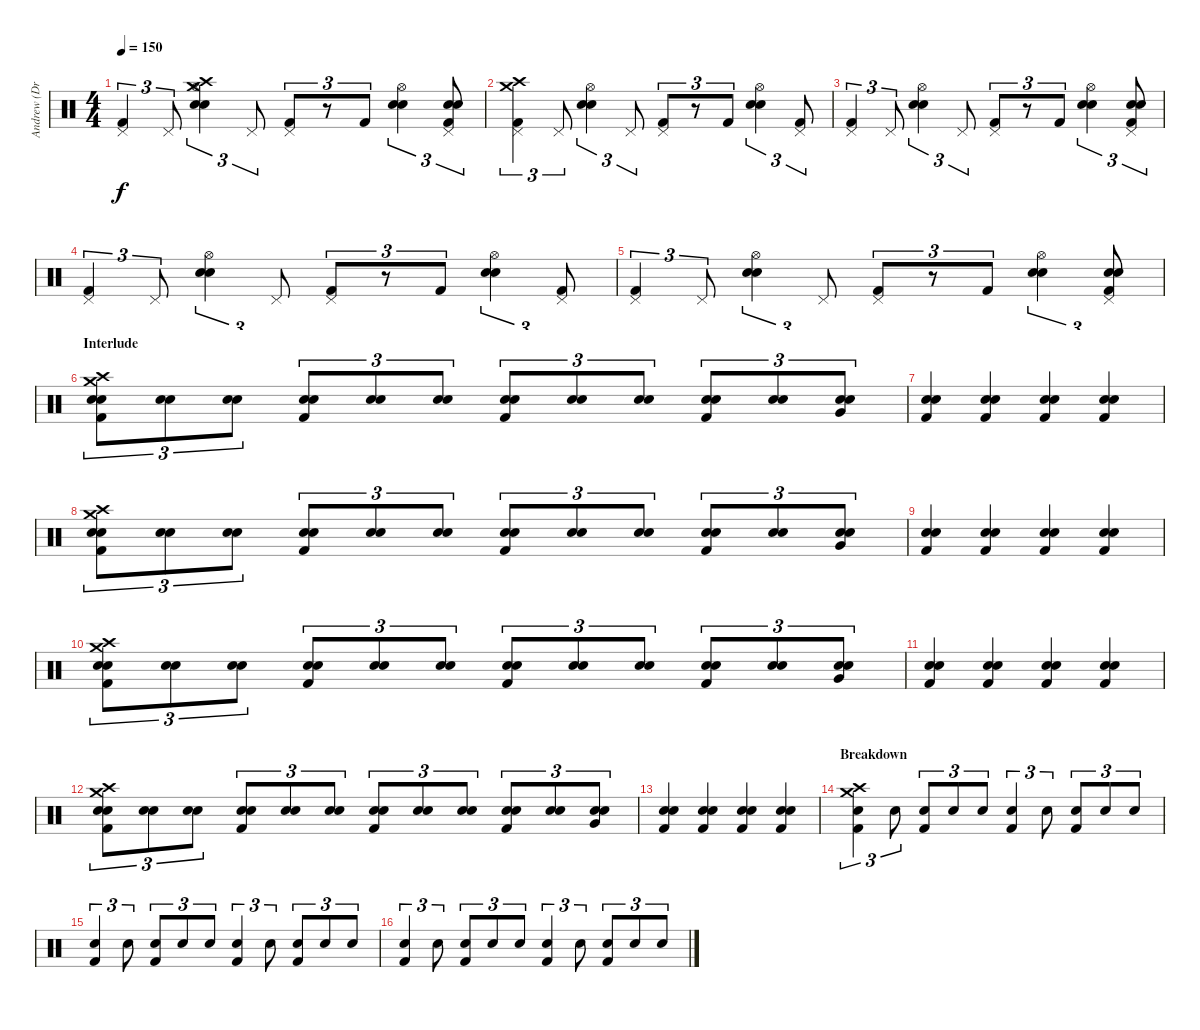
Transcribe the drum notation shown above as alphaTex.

\track ("Andrew (Drums)" "Andrew (Dr") {instrument percussion}
\staff {score}
\articulation defaults
\ts (4 4)
\tempo 150
\clef neutral
\ks c
("Kick (hit) 2" "Pedal Hi-Hat (hit)").4{tu (3 2) dy f} "Pedal Hi-Hat (hit)".8{tu (3 2)} ("Electric Snare (hit)" "Snare (hit) 2" "Hi-Hat (open)" "Crash medium (hit)" "Crash high (hit)").4{tu (3 2)} "Pedal Hi-Hat (hit)".8{tu (3 2)} ("Kick (hit) 2" "Pedal Hi-Hat (hit)").8{tu (3 2)} r.8{tu (3 2)} "Kick (hit) 2".8{tu (3 2)} ("Electric Snare (hit)" "Snare (hit) 2" "Hi-Hat (open)").4{tu (3 2)} ("Kick (hit) 2" "Electric Snare (hit)" "Pedal Hi-Hat (hit)" "Snare (hit) 2").8{tu (3 2)} |
("Kick (hit) 2" "Pedal Hi-Hat (hit)" "Crash medium (hit)" "Crash high (hit)").4{tu (3 2)} "Pedal Hi-Hat (hit)".8{tu (3 2)} ("Electric Snare (hit)" "Snare (hit) 2" "Hi-Hat (open)").4{tu (3 2)} "Pedal Hi-Hat (hit)".8{tu (3 2)} ("Kick (hit) 2" "Pedal Hi-Hat (hit)").8{tu (3 2)} r.8{tu (3 2)} "Kick (hit) 2".8{tu (3 2)} ("Electric Snare (hit)" "Snare (hit) 2" "Hi-Hat (open)").4{tu (3 2)} ("Kick (hit) 2" "Pedal Hi-Hat (hit)").8{tu (3 2)} |
("Kick (hit) 2" "Pedal Hi-Hat (hit)").4{tu (3 2)} "Pedal Hi-Hat (hit)".8{tu (3 2)} ("Electric Snare (hit)" "Snare (hit) 2" "Hi-Hat (open)").4{tu (3 2)} "Pedal Hi-Hat (hit)".8{tu (3 2)} ("Kick (hit) 2" "Pedal Hi-Hat (hit)").8{tu (3 2)} r.8{tu (3 2)} "Kick (hit) 2".8{tu (3 2)} ("Electric Snare (hit)" "Snare (hit) 2" "Hi-Hat (open)").4{tu (3 2)} ("Kick (hit) 2" "Electric Snare (hit)" "Pedal Hi-Hat (hit)" "Snare (hit) 2").8{tu (3 2)} |
("Kick (hit) 2" "Pedal Hi-Hat (hit)").4{tu (3 2)} "Pedal Hi-Hat (hit)".8{tu (3 2)} ("Electric Snare (hit)" "Snare (hit) 2" "Hi-Hat (open)").4{tu (3 2)} "Pedal Hi-Hat (hit)".8{tu (3 2)} ("Kick (hit) 2" "Pedal Hi-Hat (hit)").8{tu (3 2)} r.8{tu (3 2)} "Kick (hit) 2".8{tu (3 2)} ("Electric Snare (hit)" "Snare (hit) 2" "Hi-Hat (open)").4{tu (3 2)} ("Kick (hit) 2" "Pedal Hi-Hat (hit)").8{tu (3 2)} |
("Kick (hit) 2" "Pedal Hi-Hat (hit)").4{tu (3 2)} "Pedal Hi-Hat (hit)".8{tu (3 2)} ("Electric Snare (hit)" "Snare (hit) 2" "Hi-Hat (open)").4{tu (3 2)} "Pedal Hi-Hat (hit)".8{tu (3 2)} ("Kick (hit) 2" "Pedal Hi-Hat (hit)").8{tu (3 2)} r.8{tu (3 2)} "Kick (hit) 2".8{tu (3 2)} ("Electric Snare (hit)" "Snare (hit) 2" "Hi-Hat (open)").4{tu (3 2)} ("Kick (hit) 2" "Electric Snare (hit)" "Pedal Hi-Hat (hit)" "Snare (hit) 2").8{tu (3 2)} |
\section ("" "Interlude")
("Electric Snare (hit)" "Snare (hit) 2" "Kick (hit) 2" "Crash medium (hit)" "Crash high (hit)").8{tu (3 2)} ("Electric Snare (hit)" "Snare (hit) 2").8{tu (3 2)} ("Electric Snare (hit)" "Snare (hit) 2").8{tu (3 2)} ("Electric Snare (hit)" "Snare (hit) 2" "Kick (hit) 2").8{tu (3 2)} ("Electric Snare (hit)" "Snare (hit) 2").8{tu (3 2)} ("Electric Snare (hit)" "Snare (hit) 2").8{tu (3 2)} ("Electric Snare (hit)" "Snare (hit) 2" "Kick (hit) 2").8{tu (3 2)} ("Electric Snare (hit)" "Snare (hit) 2").8{tu (3 2)} ("Electric Snare (hit)" "Snare (hit) 2").8{tu (3 2)} ("Electric Snare (hit)" "Snare (hit) 2" "Kick (hit) 2").8{tu (3 2)} ("Electric Snare (hit)" "Snare (hit) 2").8{tu (3 2)} ("Electric Snare (hit)" "Snare (hit) 2" "Very Low Tom (hit)").8{tu (3 2)} |
("Electric Snare (hit)" "Snare (hit) 2" "Kick (hit) 2").4 ("Electric Snare (hit)" "Snare (hit) 2" "Kick (hit) 2").4 ("Electric Snare (hit)" "Snare (hit) 2" "Kick (hit) 2").4 ("Electric Snare (hit)" "Snare (hit) 2" "Kick (hit) 2").4 |
("Electric Snare (hit)" "Snare (hit) 2" "Kick (hit) 2" "Crash medium (hit)" "Crash high (hit)").8{tu (3 2)} ("Electric Snare (hit)" "Snare (hit) 2").8{tu (3 2)} ("Electric Snare (hit)" "Snare (hit) 2").8{tu (3 2)} ("Electric Snare (hit)" "Snare (hit) 2" "Kick (hit) 2").8{tu (3 2)} ("Electric Snare (hit)" "Snare (hit) 2").8{tu (3 2)} ("Electric Snare (hit)" "Snare (hit) 2").8{tu (3 2)} ("Electric Snare (hit)" "Snare (hit) 2" "Kick (hit) 2").8{tu (3 2)} ("Electric Snare (hit)" "Snare (hit) 2").8{tu (3 2)} ("Electric Snare (hit)" "Snare (hit) 2").8{tu (3 2)} ("Electric Snare (hit)" "Snare (hit) 2" "Kick (hit) 2").8{tu (3 2)} ("Electric Snare (hit)" "Snare (hit) 2").8{tu (3 2)} ("Electric Snare (hit)" "Snare (hit) 2" "Very Low Tom (hit)").8{tu (3 2)} |
("Electric Snare (hit)" "Snare (hit) 2" "Kick (hit) 2").4 ("Electric Snare (hit)" "Snare (hit) 2" "Kick (hit) 2").4 ("Electric Snare (hit)" "Snare (hit) 2" "Kick (hit) 2").4 ("Electric Snare (hit)" "Snare (hit) 2" "Kick (hit) 2").4 |
("Electric Snare (hit)" "Snare (hit) 2" "Kick (hit) 2" "Crash medium (hit)" "Crash high (hit)").8{tu (3 2)} ("Electric Snare (hit)" "Snare (hit) 2").8{tu (3 2)} ("Electric Snare (hit)" "Snare (hit) 2").8{tu (3 2)} ("Electric Snare (hit)" "Snare (hit) 2" "Kick (hit) 2").8{tu (3 2)} ("Electric Snare (hit)" "Snare (hit) 2").8{tu (3 2)} ("Electric Snare (hit)" "Snare (hit) 2").8{tu (3 2)} ("Electric Snare (hit)" "Snare (hit) 2" "Kick (hit) 2").8{tu (3 2)} ("Electric Snare (hit)" "Snare (hit) 2").8{tu (3 2)} ("Electric Snare (hit)" "Snare (hit) 2").8{tu (3 2)} ("Electric Snare (hit)" "Snare (hit) 2" "Kick (hit) 2").8{tu (3 2)} ("Electric Snare (hit)" "Snare (hit) 2").8{tu (3 2)} ("Electric Snare (hit)" "Snare (hit) 2" "Very Low Tom (hit)").8{tu (3 2)} |
("Electric Snare (hit)" "Snare (hit) 2" "Kick (hit) 2").4 ("Electric Snare (hit)" "Snare (hit) 2" "Kick (hit) 2").4 ("Electric Snare (hit)" "Snare (hit) 2" "Kick (hit) 2").4 ("Electric Snare (hit)" "Snare (hit) 2" "Kick (hit) 2").4 |
("Electric Snare (hit)" "Snare (hit) 2" "Kick (hit) 2" "Crash medium (hit)" "Crash high (hit)").8{tu (3 2)} ("Electric Snare (hit)" "Snare (hit) 2").8{tu (3 2)} ("Electric Snare (hit)" "Snare (hit) 2").8{tu (3 2)} ("Electric Snare (hit)" "Snare (hit) 2" "Kick (hit) 2").8{tu (3 2)} ("Electric Snare (hit)" "Snare (hit) 2").8{tu (3 2)} ("Electric Snare (hit)" "Snare (hit) 2").8{tu (3 2)} ("Electric Snare (hit)" "Snare (hit) 2" "Kick (hit) 2").8{tu (3 2)} ("Electric Snare (hit)" "Snare (hit) 2").8{tu (3 2)} ("Electric Snare (hit)" "Snare (hit) 2").8{tu (3 2)} ("Electric Snare (hit)" "Snare (hit) 2" "Kick (hit) 2").8{tu (3 2)} ("Electric Snare (hit)" "Snare (hit) 2").8{tu (3 2)} ("Electric Snare (hit)" "Snare (hit) 2" "Very Low Tom (hit)").8{tu (3 2)} |
("Electric Snare (hit)" "Snare (hit) 2" "Kick (hit) 2").4 ("Electric Snare (hit)" "Snare (hit) 2" "Kick (hit) 2").4 ("Electric Snare (hit)" "Snare (hit) 2" "Kick (hit) 2").4 ("Electric Snare (hit)" "Snare (hit) 2" "Kick (hit) 2").4 |
\section ("" "Breakdown")
("Electric Snare (hit)" "Kick (hit) 2" "Crash medium (hit)" "Crash high (hit)").4{tu (3 2) volume 10} "Electric Snare (hit)".8{tu (3 2)} ("Electric Snare (hit)" "Kick (hit) 2").8{tu (3 2)} "Electric Snare (hit)".8{tu (3 2)} "Electric Snare (hit)".8{tu (3 2)} ("Electric Snare (hit)" "Kick (hit) 2").4{tu (3 2)} "Electric Snare (hit)".8{tu (3 2)} ("Electric Snare (hit)" "Kick (hit) 2").8{tu (3 2)} "Electric Snare (hit)".8{tu (3 2)} "Electric Snare (hit)".8{tu (3 2)} |
("Electric Snare (hit)" "Kick (hit) 2").4{tu (3 2)} "Electric Snare (hit)".8{tu (3 2)} ("Electric Snare (hit)" "Kick (hit) 2").8{tu (3 2)} "Electric Snare (hit)".8{tu (3 2)} "Electric Snare (hit)".8{tu (3 2)} ("Electric Snare (hit)" "Kick (hit) 2").4{tu (3 2)} "Electric Snare (hit)".8{tu (3 2)} ("Electric Snare (hit)" "Kick (hit) 2").8{tu (3 2)} "Electric Snare (hit)".8{tu (3 2)} "Electric Snare (hit)".8{tu (3 2)} |
("Electric Snare (hit)" "Kick (hit) 2").4{tu (3 2)} "Electric Snare (hit)".8{tu (3 2)} ("Electric Snare (hit)" "Kick (hit) 2").8{tu (3 2)} "Electric Snare (hit)".8{tu (3 2)} "Electric Snare (hit)".8{tu (3 2)} ("Electric Snare (hit)" "Kick (hit) 2").4{tu (3 2)} "Electric Snare (hit)".8{tu (3 2)} ("Electric Snare (hit)" "Kick (hit) 2").8{tu (3 2)} "Electric Snare (hit)".8{tu (3 2)} "Electric Snare (hit)".8{tu (3 2)}
